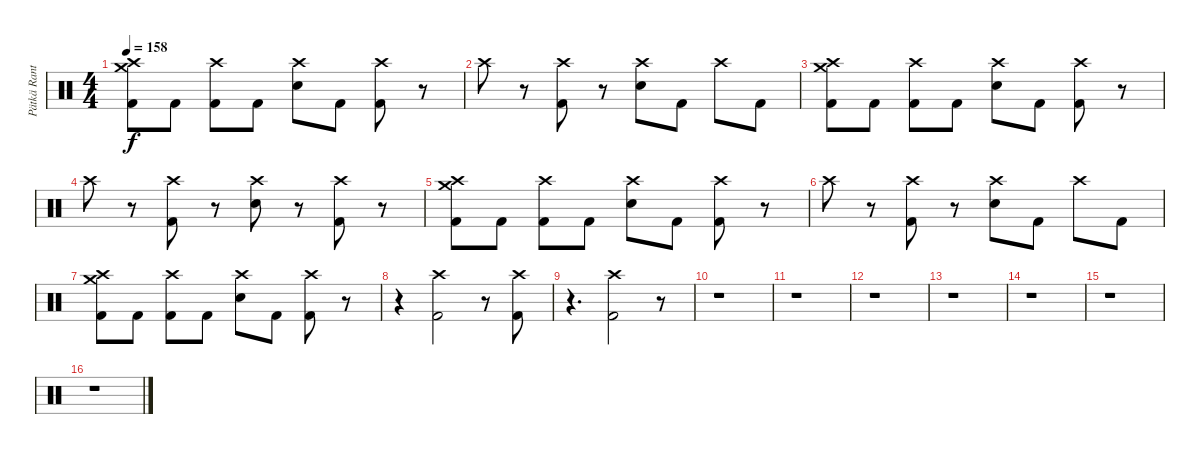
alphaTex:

\track ("Pätkä Rantala (Drums)" "Pätkä Rant") {instrument percussion}
\staff {score}
\articulation defaults
\ts (4 4)
\tempo 158
\clef neutral
\ks c
("Crash medium (hit)" "Crash high (hit)" "Kick (hit) 2").8{dy f} "Kick (hit) 2".8 ("Crash high (hit)" "Kick (hit) 2").8 "Kick (hit) 2".8 ("Crash high (hit)" "Snare (hit) 2").8 "Kick (hit) 2".8 ("Crash high (hit)" "Kick (hit) 2").8 r.8 |
"Crash high (hit)".8 r.8 ("Crash high (hit)" "Kick (hit) 2").8 r.8 ("Crash high (hit)" "Snare (hit) 2").8 "Kick (hit) 2".8 "Crash high (hit)".8 "Kick (hit) 2".8 |
("Crash medium (hit)" "Crash high (hit)" "Kick (hit) 2").8 "Kick (hit) 2".8 ("Crash high (hit)" "Kick (hit) 2").8 "Kick (hit) 2".8 ("Crash high (hit)" "Snare (hit) 2").8 "Kick (hit) 2".8 ("Crash high (hit)" "Kick (hit) 2").8 r.8 |
"Crash high (hit)".8 r.8 ("Crash high (hit)" "Kick (hit) 2").8 r.8 ("Crash high (hit)" "Snare (hit) 2").8 r.8 ("Crash high (hit)" "Kick (hit) 2").8 r.8 |
("Crash medium (hit)" "Crash high (hit)" "Kick (hit) 2").8 "Kick (hit) 2".8 ("Crash high (hit)" "Kick (hit) 2").8 "Kick (hit) 2".8 ("Crash high (hit)" "Snare (hit) 2").8 "Kick (hit) 2".8 ("Crash high (hit)" "Kick (hit) 2").8 r.8 |
"Crash high (hit)".8 r.8 ("Crash high (hit)" "Kick (hit) 2").8 r.8 ("Crash high (hit)" "Snare (hit) 2").8 "Kick (hit) 2".8 "Crash high (hit)".8 "Kick (hit) 2".8 |
("Crash medium (hit)" "Crash high (hit)" "Kick (hit) 2").8 "Kick (hit) 2".8 ("Crash high (hit)" "Kick (hit) 2").8 "Kick (hit) 2".8 ("Crash high (hit)" "Snare (hit) 2").8 "Kick (hit) 2".8 ("Crash high (hit)" "Kick (hit) 2").8 r.8 |
r.4 ("Crash high (hit)" "Kick (hit) 2").2 r.8 ("Crash high (hit)" "Kick (hit) 2").8 |
r.4{d} ("Crash high (hit)" "Kick (hit) 2").2 r.8 |
r.1 |
r.1 |
r.1 |
r.1 |
r.1{volume 0} |
r.1 |
r.1
